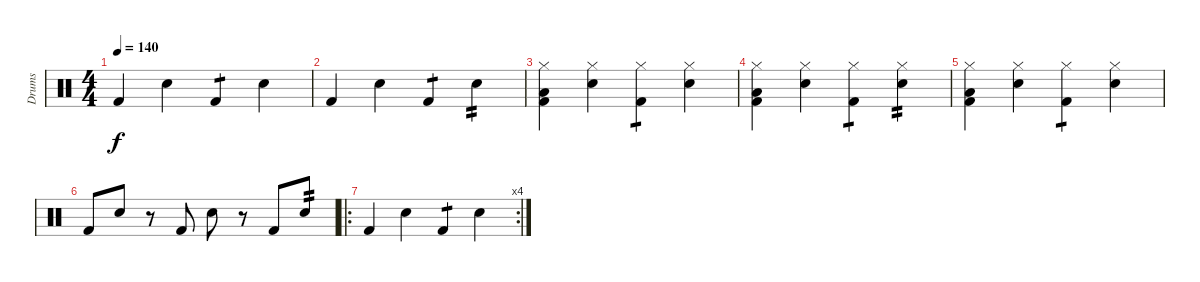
\track ("Drums" "Drums") {instrument percussion}
\staff {score}
\articulation defaults
\ts (4 4)
\tempo 140
\clef neutral
\ks c "Kick (hit) 2".4{dy f} "Snare (hit) 2".4 "Kick (hit) 2".4{tp 1} "Snare (hit) 2".4
|
"Kick (hit) 2".4 "Snare (hit) 2".4 "Kick (hit) 2".4{tp 1} "Snare (hit) 2".4{tp 2} |
("Kick (hit) 2" "Low Floor Tom (hit)" "Hi-Hat (closed)").4 ("Snare (hit) 2" "Hi-Hat (closed)").4 ("Kick (hit) 2" "Hi-Hat (closed)").4{tp 1} ("Snare (hit) 2" "Hi-Hat (closed)").4 |
("Kick (hit) 2" "Low Floor Tom (hit)" "Hi-Hat (closed)").4 ("Snare (hit) 2" "Hi-Hat (closed)").4 ("Kick (hit) 2" "Hi-Hat (closed)").4{tp 1} ("Snare (hit) 2" "Hi-Hat (closed)").4{tp 2} |
("Kick (hit) 2" "Low Floor Tom (hit)" "Hi-Hat (closed)").4 ("Snare (hit) 2" "Hi-Hat (closed)").4 ("Kick (hit) 2" "Hi-Hat (closed)").4{tp 1} ("Snare (hit) 2" "Hi-Hat (closed)").4 |
"Kick (hit) 2".8 "Snare (hit) 2".8 r.8 "Kick (hit) 2".8 "Snare (hit) 2".8 r.8 "Kick (hit) 2".8 "Snare (hit) 2".8{tp 2} |
\ro
\rc 4 "Kick (hit) 2".4 "Snare (hit) 2".4 "Kick (hit) 2".4{tp 1} "Snare (hit) 2".4
